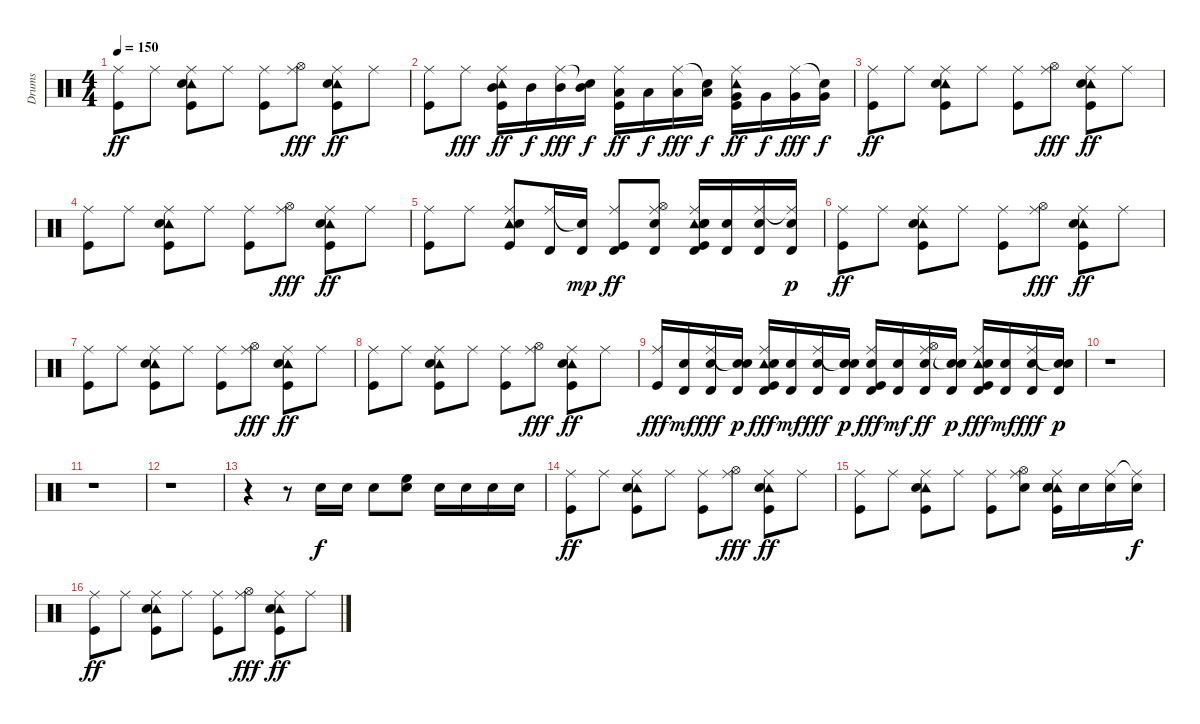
\track ("Drums" "Drums") {instrument percussion}
\staff {score}
\articulation defaults
\ts (4 4)
\tempo 150
\clef neutral
\ks c
("Ride (middle)" "Kick (hit)").8{dy ff} "Ride (middle)".8 ("Ride (middle)" "Tambourine (hit)" "Electric Snare (hit)" "Kick (hit)").8 "Ride (middle)".8 ("Ride (middle)" "Kick (hit)").8 ("Ride (middle)" "Hi-Hat (open)").8{dy fff} ("Ride (middle)" "Tambourine (hit)" "Electric Snare (hit)" "Kick (hit)").8{dy ff} "Ride (middle)".8 |
("Ride (middle)" "Kick (hit)").8 "Ride (middle)".8{dy fff} ("Ride (middle)" "Tambourine (hit)" "Mid Tom (hit)" "Kick (hit)").16{dy ff} "Mid Tom (hit)".16{dy f} ("Ride (middle)" "Mid Tom (hit)").16{dy fff} ("Snare (hit)"{t} "Mid Tom (hit)").16{dy f} ("Ride (middle)" "Low Tom (hit)" "Kick (hit)").16{dy ff} "Low Tom (hit)".16{dy f} ("Ride (middle)" "Low Tom (hit)").16{dy fff} ("Snare (hit)"{t} "Low Tom (hit)").16{dy f} ("Ride (middle)" "Tambourine (hit)" "Very Low Tom (hit)" "Kick (hit)").16{dy ff} "Very Low Tom (hit)".16{dy f} ("Ride (middle)" "Very Low Tom (hit)").16{dy fff} ("Snare (hit)"{t} "Very Low Tom (hit)").16{dy f} |
("Ride (middle)" "Kick (hit)").8{dy ff} "Ride (middle)".8 ("Ride (middle)" "Tambourine (hit)" "Electric Snare (hit)" "Kick (hit)").8 "Ride (middle)".8 ("Ride (middle)" "Kick (hit)").8 ("Ride (middle)" "Hi-Hat (open)").8{dy fff} ("Ride (middle)" "Tambourine (hit)" "Electric Snare (hit)" "Kick (hit)").8{dy ff} "Ride (middle)".8 |
("Ride (middle)" "Kick (hit)").8 "Ride (middle)".8 ("Ride (middle)" "Tambourine (hit)" "Electric Snare (hit)" "Kick (hit)").8 "Ride (middle)".8 ("Ride (middle)" "Kick (hit)").8 ("Ride (middle)" "Hi-Hat (open)").8{dy fff} ("Ride (middle)" "Tambourine (hit)" "Electric Snare (hit)" "Kick (hit)").8{dy ff} "Ride (middle)".8 |
("Ride (middle)" "Kick (hit)").8 "Ride (middle)".8 ("Ride (middle)" "Tambourine (hit)" "Electric Snare (hit)" "Kick (hit)").8 ("Timbale high (hit)" "Ride (middle)").16 ("Timbale high (hit)" "Snare (hit)"{t}).16{dy mp} ("Timbale high (hit)" "Ride (middle)" "Kick (hit)").8{dy ff} ("Timbale high (hit)" "Ride (middle)" "Hi-Hat (open)" "Snare (hit) 2").8 ("Timbale high (hit)" "Ride (middle)" "Tambourine (hit)" "Electric Snare (hit)" "Snare (hit) 2" "Kick (hit)").16 ("Timbale high (hit)" "Snare (hit) 2").16 ("Timbale high (hit)" "Ride (middle)" "Snare (hit) 2").16 ("Timbale high (hit)" "Ride (middle)"{t} "Snare (hit) 2").16{dy p} |
("Ride (middle)" "Kick (hit)").8{dy ff} "Ride (middle)".8 ("Ride (middle)" "Tambourine (hit)" "Electric Snare (hit)" "Kick (hit)").8 "Ride (middle)".8 ("Ride (middle)" "Kick (hit)").8 ("Ride (middle)" "Hi-Hat (open)").8{dy fff} ("Ride (middle)" "Tambourine (hit)" "Electric Snare (hit)" "Kick (hit)").8{dy ff} "Ride (middle)".8 |
("Ride (middle)" "Kick (hit)").8 "Ride (middle)".8 ("Ride (middle)" "Tambourine (hit)" "Electric Snare (hit)" "Kick (hit)").8 "Ride (middle)".8 ("Ride (middle)" "Kick (hit)").8 ("Ride (middle)" "Hi-Hat (open)").8{dy fff} ("Ride (middle)" "Tambourine (hit)" "Electric Snare (hit)" "Kick (hit)").8{dy ff} "Ride (middle)".8 |
("Ride (middle)" "Kick (hit)").8 "Ride (middle)".8 ("Ride (middle)" "Tambourine (hit)" "Electric Snare (hit)" "Kick (hit)").8 "Ride (middle)".8 ("Ride (middle)" "Kick (hit)").8 ("Ride (middle)" "Hi-Hat (open)").8{dy fff} ("Ride (middle)" "Tambourine (hit)" "Electric Snare (hit)" "Kick (hit)").8{dy ff} "Ride (middle)".8 |
("Ride (middle)" "Kick (hit)").16{dy fff} ("Timbale high (hit)" "Snare (hit) 2").16{dy mf} ("Timbale high (hit)" "Ride (middle)" "Snare (hit) 2").16{dy fff} ("Timbale high (hit)" "Snare (hit)"{t} "Snare (hit) 2").16{dy p} ("Timbale high (hit)" "Ride (middle)" "Tambourine (hit)" "Snare (hit) 2" "Kick (hit)").16{dy fff} ("Timbale high (hit)" "Snare (hit) 2").16{dy mf} ("Timbale high (hit)" "Ride (middle)" "Snare (hit) 2").16{dy fff} ("Timbale high (hit)" "Snare (hit)"{t} "Snare (hit) 2").16{dy p} ("Timbale high (hit)" "Ride (middle)" "Snare (hit) 2" "Kick (hit)").16{dy fff} ("Timbale high (hit)" "Snare (hit) 2").16{dy mf} ("Timbale high (hit)" "Ride (middle)" "Hi-Hat (open)" "Snare (hit) 2").16{dy ff} ("Timbale high (hit)" "Snare (hit)"{t} "Snare (hit) 2").16{dy p} ("Timbale high (hit)" "Ride (middle)" "Tambourine (hit)" "Snare (hit) 2" "Kick (hit)").16{dy fff} ("Timbale high (hit)" "Snare (hit) 2").16{dy mf} ("Timbale high (hit)" "Ride (middle)" "Snare (hit) 2").16{dy fff} ("Timbale high (hit)" "Snare (hit)"{t} "Snare (hit) 2").16{dy p} |
r.1 |
r.1 |
r.1 |
r.4 r.8 "Snare (hit) 2".16{dy f} "Snare (hit) 2".16 "Snare (hit) 2".8 ("High Floor Tom (hit)" "Snare (hit) 2").8 "Snare (hit) 2".16 "Snare (hit) 2".16 "Snare (hit) 2".16 "Snare (hit) 2".16 |
("Ride (middle)" "Kick (hit)").8{dy ff} "Ride (middle)".8 ("Ride (middle)" "Tambourine (hit)" "Electric Snare (hit)" "Kick (hit)").8 "Ride (middle)".8 ("Ride (middle)" "Kick (hit)").8 ("Ride (middle)" "Hi-Hat (open)").8{dy fff} ("Ride (middle)" "Tambourine (hit)" "Electric Snare (hit)" "Kick (hit)").8{dy ff} "Ride (middle)".8 |
("Ride (middle)" "Kick (hit)").8 "Ride (middle)".8 ("Ride (middle)" "Tambourine (hit)" "Electric Snare (hit)" "Kick (hit)").8 "Ride (middle)".8 ("Ride (middle)" "Kick (hit)").8 ("Ride (middle)" "Hi-Hat (open)" "Snare (hit) 2").8 ("Ride (middle)" "Tambourine (hit)" "Electric Snare (hit)" "Snare (hit) 2" "Kick (hit)").16 "Snare (hit) 2".16 ("Ride (middle)" "Snare (hit) 2").16 ("Ride (middle)"{t} "Snare (hit) 2").16{dy f} |
("Ride (middle)" "Kick (hit)").8{dy ff} "Ride (middle)".8 ("Ride (middle)" "Tambourine (hit)" "Electric Snare (hit)" "Kick (hit)").8 "Ride (middle)".8 ("Ride (middle)" "Kick (hit)").8 ("Ride (middle)" "Hi-Hat (open)").8{dy fff} ("Ride (middle)" "Tambourine (hit)" "Electric Snare (hit)" "Kick (hit)").8{dy ff} "Ride (middle)".8
